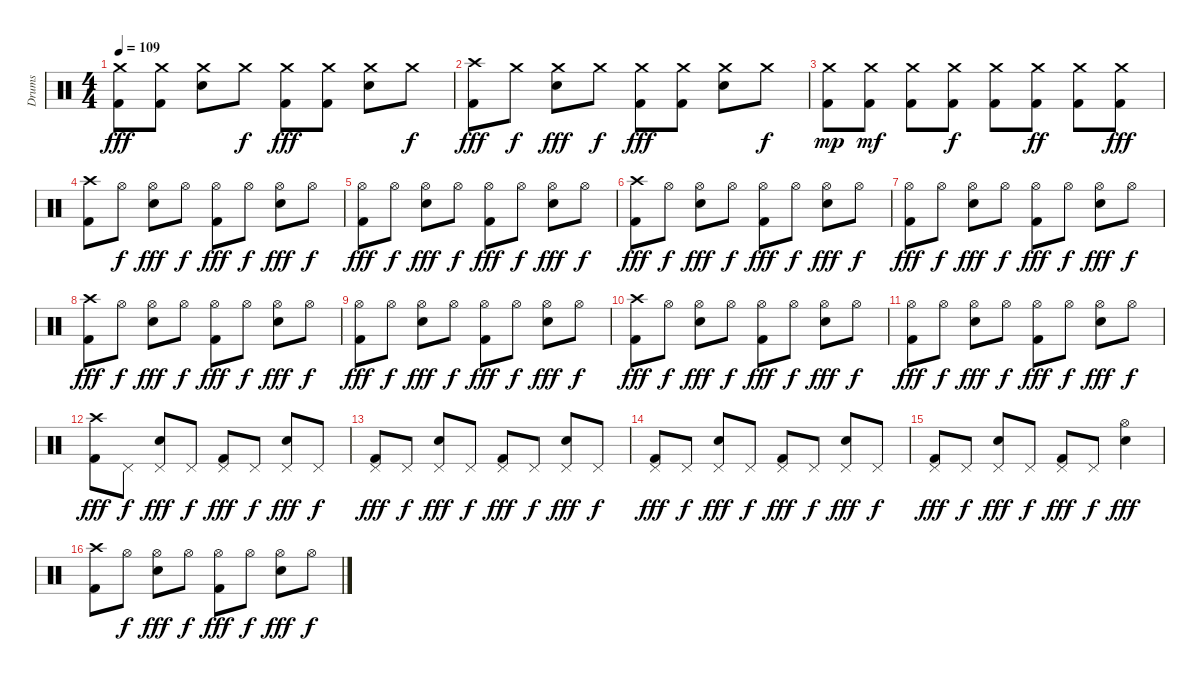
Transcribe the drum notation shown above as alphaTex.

\track ("Drums" "Drums") {instrument percussion}
\staff {score}
\articulation defaults
\ts (4 4)
\tempo 109
\clef neutral
\ks c
("Crash medium (hit)" "Kick (hit) 2").8{dy fff} ("Crash medium (hit)" "Kick (hit) 2").8 ("Crash medium (hit)" "Electric Snare (hit)").8 "Crash medium (hit)".8{dy f} ("Crash medium (hit)" "Kick (hit) 2").8{dy fff} ("Crash medium (hit)" "Kick (hit) 2").8 ("Crash medium (hit)" "Electric Snare (hit)").8 "Crash medium (hit)".8{dy f} |
("Crash high (hit)" "Kick (hit) 2").8{dy fff} "Crash medium (hit)".8{dy f} ("Crash medium (hit)" "Electric Snare (hit)").8{dy fff} "Crash medium (hit)".8{dy f} ("Crash medium (hit)" "Kick (hit) 2").8{dy fff} ("Crash medium (hit)" "Kick (hit) 2").8 ("Crash medium (hit)" "Electric Snare (hit)").8 "Crash medium (hit)".8{dy f} |
("Crash medium (hit)" "Kick (hit) 2").8{dy mp} ("Crash medium (hit)" "Kick (hit) 2").8{dy mf} ("Crash medium (hit)" "Kick (hit) 2").8 ("Crash medium (hit)" "Kick (hit) 2").8{dy f} ("Crash medium (hit)" "Kick (hit) 2").8 ("Crash medium (hit)" "Kick (hit) 2").8{dy ff} ("Crash medium (hit)" "Kick (hit) 2").8 ("Crash medium (hit)" "Kick (hit) 2").8{dy fff} |
("Crash high (hit)" "Kick (hit) 2").8 "Hi-Hat (open)".8{dy f} ("Hi-Hat (open)" "Electric Snare (hit)").8{dy fff} "Hi-Hat (open)".8{dy f} ("Hi-Hat (open)" "Kick (hit) 2").8{dy fff} "Hi-Hat (open)".8{dy f} ("Hi-Hat (open)" "Electric Snare (hit)").8{dy fff} "Hi-Hat (open)".8{dy f} |
("Hi-Hat (open)" "Kick (hit) 2").8{dy fff} "Hi-Hat (open)".8{dy f} ("Hi-Hat (open)" "Electric Snare (hit)").8{dy fff} "Hi-Hat (open)".8{dy f} ("Hi-Hat (open)" "Kick (hit) 2").8{dy fff} "Hi-Hat (open)".8{dy f} ("Hi-Hat (open)" "Electric Snare (hit)").8{dy fff} "Hi-Hat (open)".8{dy f} |
("Crash high (hit)" "Kick (hit) 2").8{dy fff} "Hi-Hat (open)".8{dy f} ("Hi-Hat (open)" "Electric Snare (hit)").8{dy fff} "Hi-Hat (open)".8{dy f} ("Hi-Hat (open)" "Kick (hit) 2").8{dy fff} "Hi-Hat (open)".8{dy f} ("Hi-Hat (open)" "Electric Snare (hit)").8{dy fff} "Hi-Hat (open)".8{dy f} |
("Hi-Hat (open)" "Kick (hit) 2").8{dy fff} "Hi-Hat (open)".8{dy f} ("Hi-Hat (open)" "Electric Snare (hit)").8{dy fff} "Hi-Hat (open)".8{dy f} ("Hi-Hat (open)" "Kick (hit) 2").8{dy fff} "Hi-Hat (open)".8{dy f} ("Hi-Hat (open)" "Electric Snare (hit)").8{dy fff} "Hi-Hat (open)".8{dy f} |
("Crash high (hit)" "Kick (hit) 2").8{dy fff} "Hi-Hat (open)".8{dy f} ("Hi-Hat (open)" "Electric Snare (hit)").8{dy fff} "Hi-Hat (open)".8{dy f} ("Hi-Hat (open)" "Kick (hit) 2").8{dy fff} "Hi-Hat (open)".8{dy f} ("Hi-Hat (open)" "Electric Snare (hit)").8{dy fff} "Hi-Hat (open)".8{dy f} |
("Hi-Hat (open)" "Kick (hit) 2").8{dy fff} "Hi-Hat (open)".8{dy f} ("Hi-Hat (open)" "Electric Snare (hit)").8{dy fff} "Hi-Hat (open)".8{dy f} ("Hi-Hat (open)" "Kick (hit) 2").8{dy fff} "Hi-Hat (open)".8{dy f} ("Hi-Hat (open)" "Electric Snare (hit)").8{dy fff} "Hi-Hat (open)".8{dy f} |
("Crash high (hit)" "Kick (hit) 2").8{dy fff} "Hi-Hat (open)".8{dy f} ("Hi-Hat (open)" "Electric Snare (hit)").8{dy fff} "Hi-Hat (open)".8{dy f} ("Hi-Hat (open)" "Kick (hit) 2").8{dy fff} "Hi-Hat (open)".8{dy f} ("Hi-Hat (open)" "Electric Snare (hit)").8{dy fff} "Hi-Hat (open)".8{dy f} |
("Hi-Hat (open)" "Kick (hit) 2").8{dy fff} "Hi-Hat (open)".8{dy f} ("Hi-Hat (open)" "Electric Snare (hit)").8{dy fff} "Hi-Hat (open)".8{dy f} ("Hi-Hat (open)" "Kick (hit) 2").8{dy fff} "Hi-Hat (open)".8{dy f} ("Hi-Hat (open)" "Electric Snare (hit)").8{dy fff} "Hi-Hat (open)".8{dy f} |
("Crash high (hit)" "Kick (hit) 2").8{dy fff} "Pedal Hi-Hat (hit)".8{dy f} ("Pedal Hi-Hat (hit)" "Electric Snare (hit)").8{dy fff} "Pedal Hi-Hat (hit)".8{dy f} ("Pedal Hi-Hat (hit)" "Kick (hit) 2").8{dy fff} "Pedal Hi-Hat (hit)".8{dy f} ("Pedal Hi-Hat (hit)" "Electric Snare (hit)").8{dy fff} "Pedal Hi-Hat (hit)".8{dy f} |
("Pedal Hi-Hat (hit)" "Kick (hit) 2").8{dy fff} "Pedal Hi-Hat (hit)".8{dy f} ("Pedal Hi-Hat (hit)" "Electric Snare (hit)").8{dy fff} "Pedal Hi-Hat (hit)".8{dy f} ("Pedal Hi-Hat (hit)" "Kick (hit) 2").8{dy fff} "Pedal Hi-Hat (hit)".8{dy f} ("Pedal Hi-Hat (hit)" "Electric Snare (hit)").8{dy fff} "Pedal Hi-Hat (hit)".8{dy f} |
("Pedal Hi-Hat (hit)" "Kick (hit) 2").8{dy fff} "Pedal Hi-Hat (hit)".8{dy f} ("Pedal Hi-Hat (hit)" "Electric Snare (hit)").8{dy fff} "Pedal Hi-Hat (hit)".8{dy f} ("Pedal Hi-Hat (hit)" "Kick (hit) 2").8{dy fff} "Pedal Hi-Hat (hit)".8{dy f} ("Pedal Hi-Hat (hit)" "Electric Snare (hit)").8{dy fff} "Pedal Hi-Hat (hit)".8{dy f} |
("Pedal Hi-Hat (hit)" "Kick (hit) 2").8{dy fff} "Pedal Hi-Hat (hit)".8{dy f} ("Pedal Hi-Hat (hit)" "Electric Snare (hit)").8{dy fff} "Pedal Hi-Hat (hit)".8{dy f} ("Pedal Hi-Hat (hit)" "Kick (hit) 2").8{dy fff} "Pedal Hi-Hat (hit)".8{dy f} ("Hi-Hat (open)" "Electric Snare (hit)").4{dy fff} |
("Crash high (hit)" "Kick (hit) 2").8 "Hi-Hat (open)".8{dy f} ("Hi-Hat (open)" "Electric Snare (hit)").8{dy fff} "Hi-Hat (open)".8{dy f} ("Hi-Hat (open)" "Kick (hit) 2").8{dy fff} "Hi-Hat (open)".8{dy f} ("Hi-Hat (open)" "Electric Snare (hit)").8{dy fff} "Hi-Hat (open)".8{dy f}
